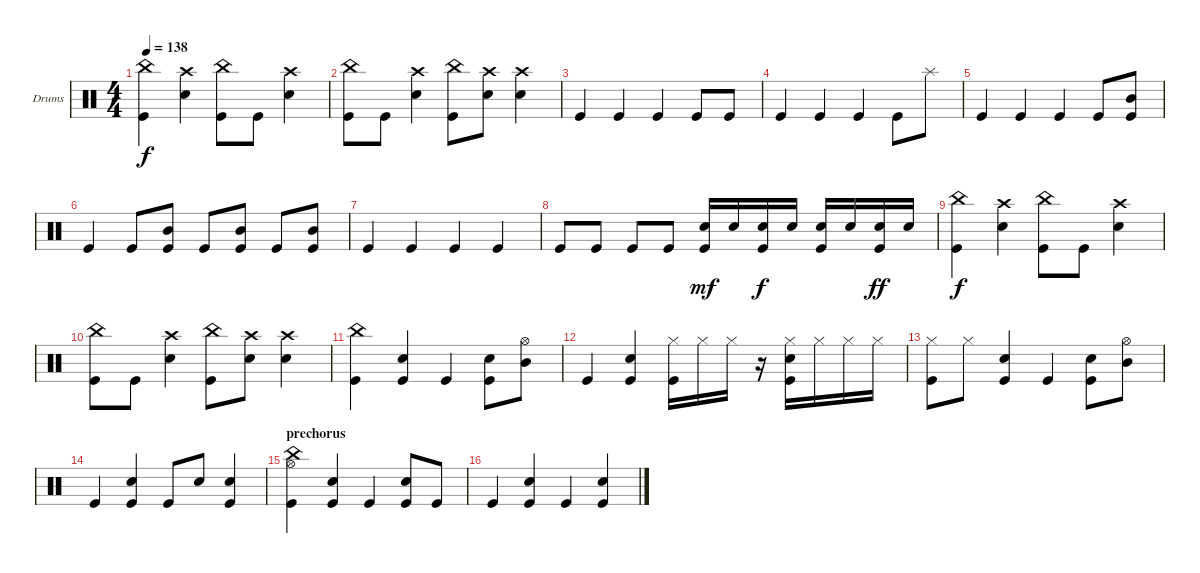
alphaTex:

\bracketExtendMode groupsimilarinstruments
\firstSystemTrackNameOrientation horizontal
\otherSystemsTrackNameOrientation horizontal
\track ("Drumkit" "Drums") {instrument percussion}
\staff {score}
\articulation defaults
\ts (4 4)
\tempo 138
\clef neutral
\ks c
("China (hit)" "Kick (hit)").4{dy f} ("Crash high (hit)" "Snare (hit) 2").4 ("China (hit)" "Kick (hit)").8 "Kick (hit)".8 ("Crash high (hit)" "Snare (hit) 2").4 |
("China (hit)" "Kick (hit)").8 "Kick (hit)".8 ("Crash high (hit)" "Snare (hit) 2").4 ("China (hit)" "Kick (hit)").8 ("Crash high (hit)" "Snare (hit) 2").8 ("Crash high (hit)" "Snare (hit) 2").4 |
"Kick (hit)".4 "Kick (hit)".4 "Kick (hit)".4 "Kick (hit)".8 "Kick (hit)".8 |
"Kick (hit)".4 "Kick (hit)".4 "Kick (hit)".4 "Kick (hit)".8 "Splash (hit)".8 |
"Kick (hit)".4 "Kick (hit)".4 "Kick (hit)".4 "Kick (hit)".8 ("Mid Tom (hit)" "Kick (hit)").8 |
"Kick (hit)".4 "Kick (hit)".8 ("Mid Tom (hit)" "Kick (hit)").8 "Kick (hit)".8 ("Mid Tom (hit)" "Kick (hit)").8 "Kick (hit)".8 ("Mid Tom (hit)" "Kick (hit)").8 |
"Kick (hit)".4 "Kick (hit)".4 "Kick (hit)".4 "Kick (hit)".4 |
"Kick (hit)".8 "Kick (hit)".8 "Kick (hit)".8 "Kick (hit)".8 ("Snare (hit) 2" "Kick (hit)").16{dy mf} "Snare (hit) 2".16 ("Snare (hit) 2" "Kick (hit)").16{dy f} "Snare (hit) 2".16 ("Snare (hit) 2" "Kick (hit)").16 "Snare (hit) 2".16 ("Snare (hit) 2" "Kick (hit)").16{dy ff} "Snare (hit) 2".16 |
("China (hit)" "Kick (hit)").4{dy f} ("Crash high (hit)" "Snare (hit) 2").4 ("China (hit)" "Kick (hit)").8 "Kick (hit)".8 ("Crash high (hit)" "Snare (hit) 2").4 |
("China (hit)" "Kick (hit)").8 "Kick (hit)".8 ("Crash high (hit)" "Snare (hit) 2").4 ("China (hit)" "Kick (hit)").8 ("Crash high (hit)" "Snare (hit) 2").8 ("Crash high (hit)" "Snare (hit) 2").4 |
("China (hit)" "Kick (hit)").4 ("Snare (hit) 2" "Kick (hit)").4 "Kick (hit)".4 ("Snare (hit) 2" "Kick (hit)").8 ("Hi-Hat (open)" "Mid Tom (hit)").8 |
"Kick (hit)".4 ("Snare (hit) 2" "Kick (hit)").4 ("Hi-Hat (closed)" "Kick (hit)").16 "Hi-Hat (closed)".16 "Hi-Hat (closed)".16 r.16 ("Hi-Hat (closed)" "Snare (hit) 2" "Kick (hit)").16 "Hi-Hat (closed)".16 "Hi-Hat (closed)".16 "Hi-Hat (closed)".16 |
("Hi-Hat (closed)" "Kick (hit)").8 "Hi-Hat (closed)".8 ("Snare (hit) 2" "Kick (hit)").4 "Kick (hit)".4 ("Snare (hit) 2" "Kick (hit)").8 ("Hi-Hat (open)" "Mid Tom (hit)").8 |
"Kick (hit)".4 ("Snare (hit) 2" "Kick (hit)").4 "Kick (hit)".8 "Snare (hit) 2".8 ("Snare (hit) 2" "Kick (hit)").4 |
\section ("" "prechorus")
("China (hit)" "Hi-Hat (open)" "Kick (hit)").4 ("Snare (hit) 2" "Kick (hit)").4 "Kick (hit)".4 ("Snare (hit) 2" "Kick (hit)").8 "Kick (hit)".8 |
"Kick (hit)".4 ("Snare (hit) 2" "Kick (hit)").4 "Kick (hit)".4 ("Snare (hit) 2" "Kick (hit)").4
